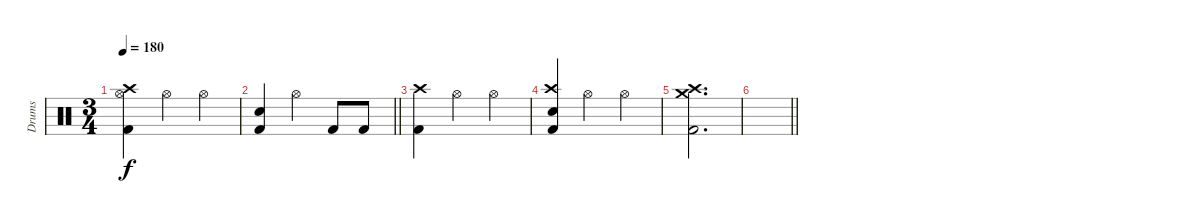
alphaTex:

\track ("Drums" "Drums") {instrument percussion}
\staff {score}
\articulation defaults
\ts (3 4)
\tempo 180
\clef neutral
\ks c
("Hi-Hat (open)" "Kick (hit) 2" "Crash high (hit)").4{dy f} "Hi-Hat (open)".4 "Hi-Hat (open)".4 |
\barLineRight lightlight
("Snare (hit) 2" "Kick (hit) 2").4 "Hi-Hat (open)".4 "Kick (hit) 2".8 "Kick (hit) 2".8 |
("Crash high (hit)" "Kick (hit) 2").4 "Hi-Hat (open)".4 "Hi-Hat (open)".4 |
("Snare (hit) 2" "Crash high (hit)" "Kick (hit) 2").4 "Hi-Hat (open)".4 "Hi-Hat (open)".4 |
("Crash medium (hit)" "Kick (hit) 2" "Crash high (hit)").2{d} |
\barLineRight lightlight
